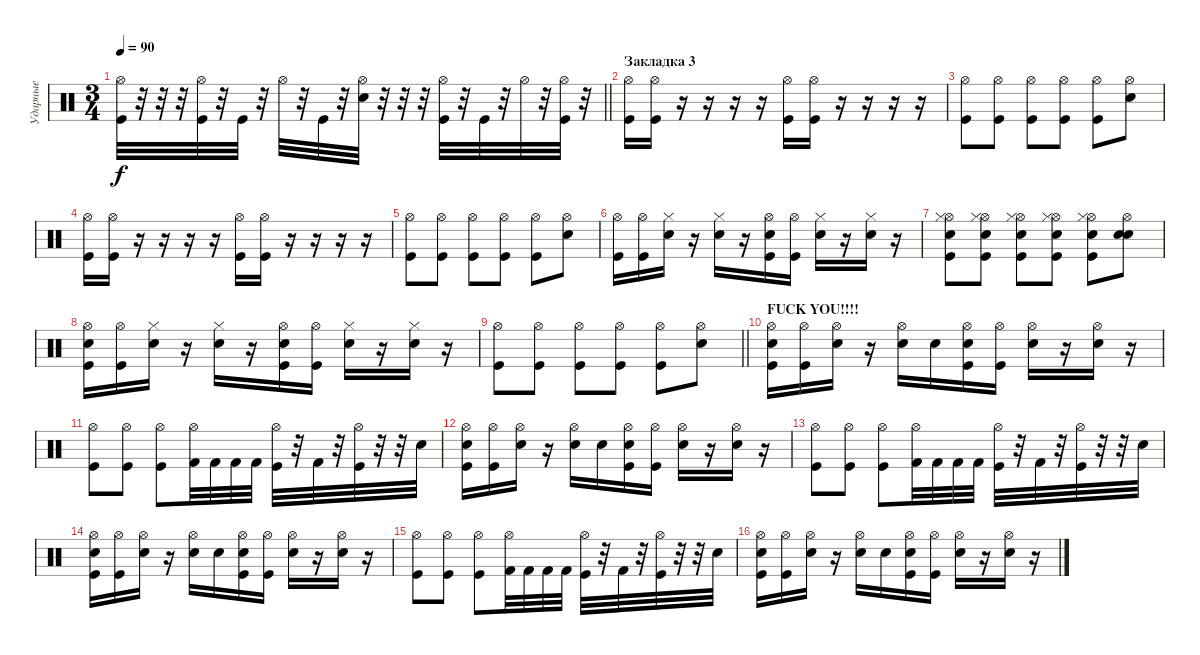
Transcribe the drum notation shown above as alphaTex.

\track ("Ударные" "Ударные") {instrument percussion}
\staff {score}
\articulation defaults
\ts (3 4)
\tempo 90
\clef neutral
\barLineRight lightlight
\ks c
("Hi-Hat (open)" "Kick (hit)").32{dy f} r.32 r.32 r.32 ("Hi-Hat (open)" "Kick (hit)").32 r.32 "Kick (hit)".32 r.32 "Hi-Hat (open)".32 r.32 "Kick (hit)".32 r.32 ("Hi-Hat (open)" "Electric Snare (hit)").32 r.32 r.32 r.32 ("Hi-Hat (open)" "Kick (hit)").32 r.32 "Kick (hit)".32 r.32 "Hi-Hat (open)".32 r.32 ("Hi-Hat (open)" "Kick (hit)").32 r.32 |
\section ("" "Закладка 3")
("Hi-Hat (open)" "Kick (hit)").16 ("Hi-Hat (open)" "Kick (hit)").16 r.16 r.16 r.16 r.16 ("Hi-Hat (open)" "Kick (hit)").16 ("Hi-Hat (open)" "Kick (hit)").16 r.16 r.16 r.16 r.16 |
("Hi-Hat (open)" "Kick (hit)").8 ("Hi-Hat (open)" "Kick (hit)").8 ("Hi-Hat (open)" "Kick (hit)").8 ("Hi-Hat (open)" "Kick (hit)").8 ("Hi-Hat (open)" "Kick (hit)").8 ("Hi-Hat (open)" "Electric Snare (hit)").8 |
("Hi-Hat (open)" "Kick (hit)").16 ("Hi-Hat (open)" "Kick (hit)").16 r.16 r.16 r.16 r.16 ("Hi-Hat (open)" "Kick (hit)").16 ("Hi-Hat (open)" "Kick (hit)").16 r.16 r.16 r.16 r.16 |
("Hi-Hat (open)" "Kick (hit)").8 ("Hi-Hat (open)" "Kick (hit)").8 ("Hi-Hat (open)" "Kick (hit)").8 ("Hi-Hat (open)" "Kick (hit)").8 ("Hi-Hat (open)" "Kick (hit)").8 ("Hi-Hat (open)" "Electric Snare (hit)").8 |
("Hi-Hat (open)" "Kick (hit)").16 ("Hi-Hat (open)" "Kick (hit)").16 ("Hi-Hat (closed)" "Electric Snare (hit)").16 r.16 ("Hi-Hat (closed)" "Electric Snare (hit)").16 r.16 ("Hi-Hat (open)" "Electric Snare (hit)" "Kick (hit)").16 ("Hi-Hat (open)" "Kick (hit)").16 ("Hi-Hat (closed)" "Electric Snare (hit)").16 r.16 ("Hi-Hat (closed)" "Electric Snare (hit)").16 r.16 |
("Hi-Hat (open)" "Hi-Hat (closed)" "Electric Snare (hit)" "Kick (hit)").8 ("Hi-Hat (open)" "Hi-Hat (closed)" "Electric Snare (hit)" "Kick (hit)").8 ("Hi-Hat (open)" "Hi-Hat (closed)" "Electric Snare (hit)" "Kick (hit)").8 ("Hi-Hat (open)" "Hi-Hat (closed)" "Electric Snare (hit)" "Kick (hit)").8 ("Hi-Hat (open)" "Hi-Hat (closed)" "Electric Snare (hit)" "Kick (hit)").8 ("Hi-Hat (open)" "Electric Snare (hit)" "Electric Snare (hit)").8 |
("Hi-Hat (open)" "Electric Snare (hit)" "Kick (hit)").16 ("Hi-Hat (open)" "Kick (hit)").16 ("Hi-Hat (closed)" "Electric Snare (hit)").16 r.16 ("Hi-Hat (closed)" "Electric Snare (hit)").16 r.16 ("Hi-Hat (open)" "Electric Snare (hit)" "Kick (hit)").16 ("Hi-Hat (open)" "Kick (hit)").16 ("Hi-Hat (closed)" "Electric Snare (hit)").16 r.16 ("Hi-Hat (closed)" "Electric Snare (hit)").16 r.16 |
\barLineRight lightlight
("Hi-Hat (open)" "Kick (hit)").8 ("Hi-Hat (open)" "Kick (hit)").8 ("Hi-Hat (open)" "Kick (hit)").8 ("Hi-Hat (open)" "Kick (hit)").8 ("Hi-Hat (open)" "Kick (hit)").8 ("Hi-Hat (open)" "Electric Snare (hit)").8 |
\section ("" "FUCK YOU!!!!")
("Hi-Hat (open)" "Electric Snare (hit)" "Kick (hit)").16 ("Hi-Hat (open)" "Kick (hit)").16 ("Hi-Hat (open)" "Electric Snare (hit)").16 r.16 ("Hi-Hat (open)" "Electric Snare (hit)").16 "Snare (hit)".16 ("Hi-Hat (open)" "Electric Snare (hit)" "Kick (hit)").16 ("Hi-Hat (open)" "Kick (hit)").16 ("Hi-Hat (open)" "Electric Snare (hit)").16 r.16 ("Hi-Hat (open)" "Electric Snare (hit)").16 r.16 |
("Hi-Hat (open)" "Kick (hit)").8 ("Hi-Hat (open)" "Kick (hit)").8 ("Hi-Hat (open)" "Kick (hit)").8 ("Hi-Hat (open)" "Kick (hit) 2").32 "Kick (hit) 2".32 "Kick (hit) 2".32 "Kick (hit) 2".32 ("Hi-Hat (open)" "Kick (hit)").32 r.32 "Kick (hit) 2".32 r.32 ("Hi-Hat (open)" "Kick (hit)").32 r.32 r.32 "Snare (hit)".32 |
("Hi-Hat (open)" "Electric Snare (hit)" "Kick (hit)").16 ("Hi-Hat (open)" "Kick (hit)").16 ("Hi-Hat (open)" "Electric Snare (hit)").16 r.16 ("Hi-Hat (open)" "Electric Snare (hit)").16 "Snare (hit)".16 ("Hi-Hat (open)" "Electric Snare (hit)" "Kick (hit)").16 ("Hi-Hat (open)" "Kick (hit)").16 ("Hi-Hat (open)" "Electric Snare (hit)").16 r.16 ("Hi-Hat (open)" "Electric Snare (hit)").16 r.16 |
("Hi-Hat (open)" "Kick (hit)").8 ("Hi-Hat (open)" "Kick (hit)").8 ("Hi-Hat (open)" "Kick (hit)").8 ("Hi-Hat (open)" "Kick (hit) 2").32 "Kick (hit) 2".32 "Kick (hit) 2".32 "Kick (hit) 2".32 ("Hi-Hat (open)" "Kick (hit)").32 r.32 "Kick (hit) 2".32 r.32 ("Hi-Hat (open)" "Kick (hit)").32 r.32 r.32 "Snare (hit)".32 |
("Hi-Hat (open)" "Electric Snare (hit)" "Kick (hit)").16 ("Hi-Hat (open)" "Kick (hit)").16 ("Hi-Hat (open)" "Electric Snare (hit)").16 r.16 ("Hi-Hat (open)" "Electric Snare (hit)").16 "Snare (hit)".16 ("Hi-Hat (open)" "Electric Snare (hit)" "Kick (hit)").16 ("Hi-Hat (open)" "Kick (hit)").16 ("Hi-Hat (open)" "Electric Snare (hit)").16 r.16 ("Hi-Hat (open)" "Electric Snare (hit)").16 r.16 |
("Hi-Hat (open)" "Kick (hit)").8 ("Hi-Hat (open)" "Kick (hit)").8 ("Hi-Hat (open)" "Kick (hit)").8 ("Hi-Hat (open)" "Kick (hit) 2").32 "Kick (hit) 2".32 "Kick (hit) 2".32 "Kick (hit) 2".32 ("Hi-Hat (open)" "Kick (hit)").32 r.32 "Kick (hit) 2".32 r.32 ("Hi-Hat (open)" "Kick (hit)").32 r.32 r.32 "Snare (hit)".32 |
("Hi-Hat (open)" "Electric Snare (hit)" "Kick (hit)").16 ("Hi-Hat (open)" "Kick (hit)").16 ("Hi-Hat (open)" "Electric Snare (hit)").16 r.16 ("Hi-Hat (open)" "Electric Snare (hit)").16 "Snare (hit)".16 ("Hi-Hat (open)" "Electric Snare (hit)" "Kick (hit)").16 ("Hi-Hat (open)" "Kick (hit)").16 ("Hi-Hat (open)" "Electric Snare (hit)").16 r.16 ("Hi-Hat (open)" "Electric Snare (hit)").16 r.16
